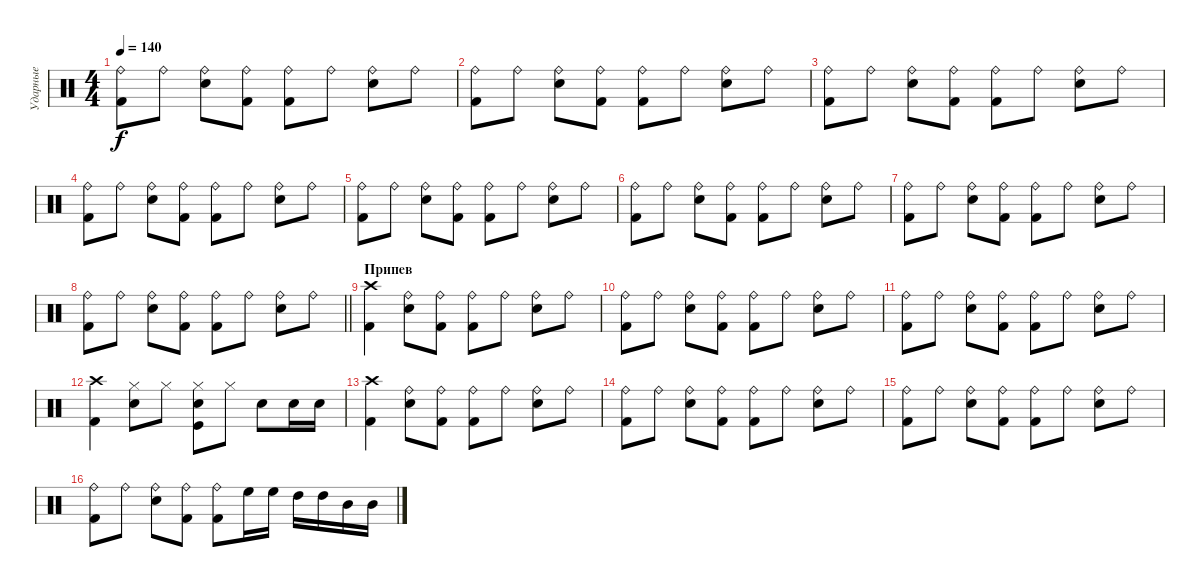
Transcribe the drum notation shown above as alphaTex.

\track ("Ударные" "Ударные") {solo instrument percussion}
\staff {score}
\articulation defaults
\ts (4 4)
\tempo 140
\clef neutral
\ks c
("Ride (bell)" "Kick (hit) 2").8{dy f} "Ride (bell)".8 ("Ride (bell)" "Electric Snare (hit)").8 ("Ride (bell)" "Kick (hit) 2").8 ("Ride (bell)" "Kick (hit) 2").8 "Ride (bell)".8 ("Ride (bell)" "Electric Snare (hit)").8 "Ride (bell)".8 |
("Ride (bell)" "Kick (hit) 2").8 "Ride (bell)".8 ("Ride (bell)" "Electric Snare (hit)").8 ("Ride (bell)" "Kick (hit) 2").8 ("Ride (bell)" "Kick (hit) 2").8 "Ride (bell)".8 ("Ride (bell)" "Electric Snare (hit)").8 "Ride (bell)".8 |
("Ride (bell)" "Kick (hit) 2").8 "Ride (bell)".8 ("Ride (bell)" "Electric Snare (hit)").8 ("Ride (bell)" "Kick (hit) 2").8 ("Ride (bell)" "Kick (hit) 2").8 "Ride (bell)".8 ("Ride (bell)" "Electric Snare (hit)").8 "Ride (bell)".8 |
("Ride (bell)" "Kick (hit) 2").8 "Ride (bell)".8 ("Ride (bell)" "Electric Snare (hit)").8 ("Ride (bell)" "Kick (hit) 2").8 ("Ride (bell)" "Kick (hit) 2").8 "Ride (bell)".8 ("Ride (bell)" "Electric Snare (hit)").8 "Ride (bell)".8 |
("Ride (bell)" "Kick (hit) 2").8 "Ride (bell)".8 ("Ride (bell)" "Electric Snare (hit)").8 ("Ride (bell)" "Kick (hit) 2").8 ("Ride (bell)" "Kick (hit) 2").8 "Ride (bell)".8 ("Ride (bell)" "Electric Snare (hit)").8 "Ride (bell)".8 |
("Ride (bell)" "Kick (hit) 2").8 "Ride (bell)".8 ("Ride (bell)" "Electric Snare (hit)").8 ("Ride (bell)" "Kick (hit) 2").8 ("Ride (bell)" "Kick (hit) 2").8 "Ride (bell)".8 ("Ride (bell)" "Electric Snare (hit)").8 "Ride (bell)".8 |
("Ride (bell)" "Kick (hit) 2").8 "Ride (bell)".8 ("Ride (bell)" "Electric Snare (hit)").8 ("Ride (bell)" "Kick (hit) 2").8 ("Ride (bell)" "Kick (hit) 2").8 "Ride (bell)".8 ("Ride (bell)" "Electric Snare (hit)").8 "Ride (bell)".8 |
\barLineRight lightlight
("Ride (bell)" "Kick (hit) 2").8 "Ride (bell)".8 ("Ride (bell)" "Electric Snare (hit)").8 ("Ride (bell)" "Kick (hit) 2").8 ("Ride (bell)" "Kick (hit) 2").8 "Ride (bell)".8 ("Ride (bell)" "Electric Snare (hit)").8 "Ride (bell)".8 |
\section ("" "Припев ")
("Crash high (hit)" "Kick (hit) 2").4 ("Ride (bell)" "Electric Snare (hit)").8 ("Ride (bell)" "Kick (hit) 2").8 ("Ride (bell)" "Kick (hit) 2").8 "Ride (bell)".8 ("Ride (bell)" "Electric Snare (hit)").8 "Ride (bell)".8 |
("Ride (bell)" "Kick (hit) 2").8 "Ride (bell)".8 ("Ride (bell)" "Electric Snare (hit)").8 ("Ride (bell)" "Kick (hit) 2").8 ("Ride (bell)" "Kick (hit) 2").8 "Ride (bell)".8 ("Ride (bell)" "Electric Snare (hit)").8 "Ride (bell)".8 |
("Ride (bell)" "Kick (hit) 2").8 "Ride (bell)".8 ("Ride (bell)" "Electric Snare (hit)").8 ("Ride (bell)" "Kick (hit) 2").8 ("Ride (bell)" "Kick (hit) 2").8 "Ride (bell)".8 ("Ride (bell)" "Electric Snare (hit)").8 "Ride (bell)".8 |
("Crash high (hit)" "Kick (hit) 2").4 ("Hi-Hat (closed)" "Electric Snare (hit)").8 "Hi-Hat (closed)".8 ("Electric Snare (hit)" "Hi-Hat (closed)" "Kick (hit)").8 "Hi-Hat (closed)".8 "Electric Snare (hit)".8 "Electric Snare (hit)".16 "Electric Snare (hit)".16 |
("Crash high (hit)" "Kick (hit) 2").4 ("Ride (bell)" "Electric Snare (hit)").8 ("Ride (bell)" "Kick (hit) 2").8 ("Ride (bell)" "Kick (hit) 2").8 "Ride (bell)".8 ("Ride (bell)" "Electric Snare (hit)").8 "Ride (bell)".8 |
("Ride (bell)" "Kick (hit) 2").8 "Ride (bell)".8 ("Ride (bell)" "Electric Snare (hit)").8 ("Ride (bell)" "Kick (hit) 2").8 ("Ride (bell)" "Kick (hit) 2").8 "Ride (bell)".8 ("Ride (bell)" "Electric Snare (hit)").8 "Ride (bell)".8 |
("Ride (bell)" "Kick (hit) 2").8 "Ride (bell)".8 ("Ride (bell)" "Electric Snare (hit)").8 ("Ride (bell)" "Kick (hit) 2").8 ("Ride (bell)" "Kick (hit) 2").8 "Ride (bell)".8 ("Ride (bell)" "Electric Snare (hit)").8 "Ride (bell)".8 |
("Ride (bell)" "Kick (hit) 2").8 "Ride (bell)".8 ("Ride (bell)" "Electric Snare (hit)").8 ("Ride (bell)" "Kick (hit) 2").8 ("Ride (bell)" "Kick (hit) 2").8 "High Floor Tom (hit)".16 "High Floor Tom (hit)".16 "High Tom (hit)".16 "High Tom (hit)".16 "Mid Tom (hit)".16 "Mid Tom (hit)".16
